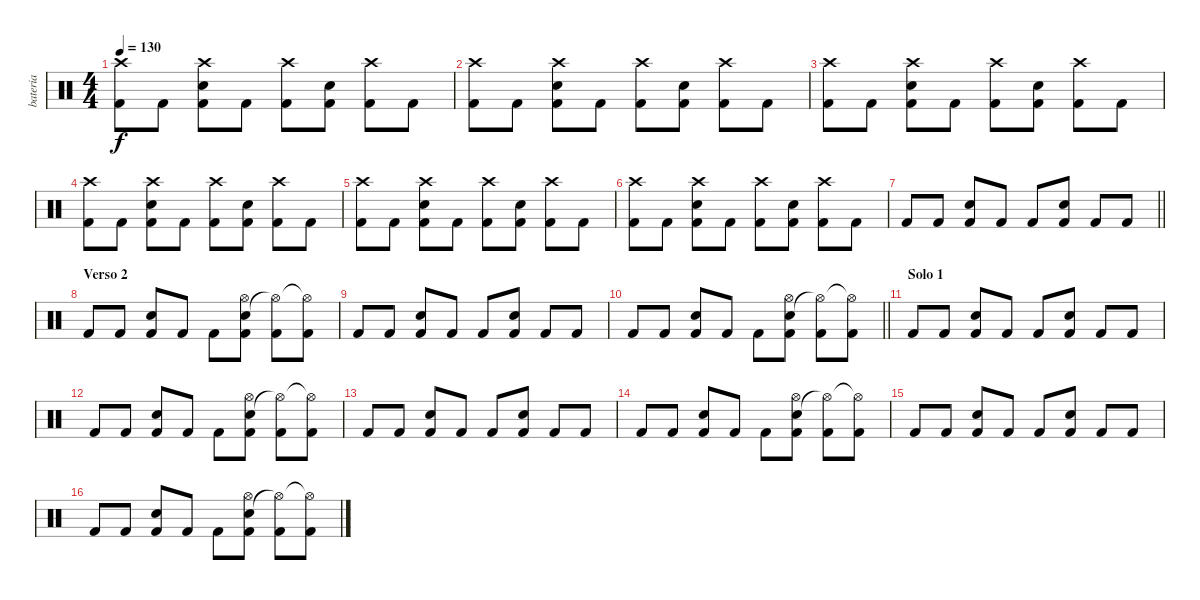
\track ("bateria" "bateria") {instrument percussion}
\staff {score}
\articulation defaults
\ts (4 4)
\tempo 130
\clef neutral
\ks c
("Crash high (hit)" "Kick (hit) 2").8{dy f} "Kick (hit) 2".8 ("Crash high (hit)" "Kick (hit) 2" "Electric Snare (hit)").8 "Kick (hit) 2".8 ("Crash high (hit)" "Kick (hit) 2").8 ("Kick (hit) 2" "Electric Snare (hit)").8 ("Crash high (hit)" "Kick (hit) 2").8 "Kick (hit) 2".8 |
("Crash high (hit)" "Kick (hit) 2").8 "Kick (hit) 2".8 ("Crash high (hit)" "Kick (hit) 2" "Electric Snare (hit)").8 "Kick (hit) 2".8 ("Crash high (hit)" "Kick (hit) 2").8 ("Kick (hit) 2" "Electric Snare (hit)").8 ("Crash high (hit)" "Kick (hit) 2").8 "Kick (hit) 2".8 |
("Crash high (hit)" "Kick (hit) 2").8 "Kick (hit) 2".8 ("Crash high (hit)" "Kick (hit) 2" "Electric Snare (hit)").8 "Kick (hit) 2".8 ("Crash high (hit)" "Kick (hit) 2").8 ("Kick (hit) 2" "Electric Snare (hit)").8 ("Crash high (hit)" "Kick (hit) 2").8 "Kick (hit) 2".8 |
("Crash high (hit)" "Kick (hit) 2").8 "Kick (hit) 2".8 ("Crash high (hit)" "Kick (hit) 2" "Electric Snare (hit)").8 "Kick (hit) 2".8 ("Crash high (hit)" "Kick (hit) 2").8 ("Kick (hit) 2" "Electric Snare (hit)").8 ("Crash high (hit)" "Kick (hit) 2").8 "Kick (hit) 2".8 |
("Crash high (hit)" "Kick (hit) 2").8 "Kick (hit) 2".8 ("Crash high (hit)" "Kick (hit) 2" "Electric Snare (hit)").8 "Kick (hit) 2".8 ("Crash high (hit)" "Kick (hit) 2").8 ("Kick (hit) 2" "Electric Snare (hit)").8 ("Crash high (hit)" "Kick (hit) 2").8 "Kick (hit) 2".8 |
("Crash high (hit)" "Kick (hit) 2").8 "Kick (hit) 2".8 ("Crash high (hit)" "Kick (hit) 2" "Electric Snare (hit)").8 "Kick (hit) 2".8 ("Crash high (hit)" "Kick (hit) 2").8 ("Kick (hit) 2" "Electric Snare (hit)").8 ("Crash high (hit)" "Kick (hit) 2").8 "Kick (hit) 2".8 |
\barLineRight lightlight "Kick (hit) 2".8 "Kick (hit) 2".8
("Kick (hit) 2" "Electric Snare (hit)").8 "Kick (hit) 2".8 "Kick (hit) 2".8 ("Kick (hit) 2" "Electric Snare (hit)").8 "Kick (hit) 2".8 "Kick (hit) 2".8 |
\section ("" "Verso 2")
"Kick (hit) 2".8 "Kick (hit) 2".8 ("Kick (hit) 2" "Electric Snare (hit)").8 "Kick (hit) 2".8 "Kick (hit) 2".8 ("Kick (hit) 2" "Electric Snare (hit)" "Hi-Hat (open)").8 ("Kick (hit) 2" "Hi-Hat (open)"{t}).8 ("Kick (hit) 2" "Hi-Hat (open)"{t}).8 |
"Kick (hit) 2".8 "Kick (hit) 2".8 ("Kick (hit) 2" "Electric Snare (hit)").8 "Kick (hit) 2".8 "Kick (hit) 2".8 ("Kick (hit) 2" "Electric Snare (hit)").8 "Kick (hit) 2".8 "Kick (hit) 2".8 |
\barLineRight lightlight "Kick (hit) 2".8 "Kick (hit) 2".8
("Kick (hit) 2" "Electric Snare (hit)").8 "Kick (hit) 2".8 "Kick (hit) 2".8 ("Kick (hit) 2" "Electric Snare (hit)" "Hi-Hat (open)").8 ("Kick (hit) 2" "Hi-Hat (open)"{t}).8 ("Kick (hit) 2" "Hi-Hat (open)"{t}).8 |
\section ("" "Solo 1")
"Kick (hit) 2".8 "Kick (hit) 2".8 ("Kick (hit) 2" "Electric Snare (hit)").8 "Kick (hit) 2".8 "Kick (hit) 2".8 ("Kick (hit) 2" "Electric Snare (hit)").8 "Kick (hit) 2".8 "Kick (hit) 2".8 |
"Kick (hit) 2".8 "Kick (hit) 2".8 ("Kick (hit) 2" "Electric Snare (hit)").8 "Kick (hit) 2".8 "Kick (hit) 2".8 ("Kick (hit) 2" "Electric Snare (hit)" "Hi-Hat (open)").8 ("Kick (hit) 2" "Hi-Hat (open)"{t}).8 ("Kick (hit) 2" "Hi-Hat (open)"{t}).8 |
"Kick (hit) 2".8 "Kick (hit) 2".8 ("Kick (hit) 2" "Electric Snare (hit)").8 "Kick (hit) 2".8 "Kick (hit) 2".8 ("Kick (hit) 2" "Electric Snare (hit)").8 "Kick (hit) 2".8 "Kick (hit) 2".8 |
"Kick (hit) 2".8 "Kick (hit) 2".8 ("Kick (hit) 2" "Electric Snare (hit)").8 "Kick (hit) 2".8 "Kick (hit) 2".8 ("Kick (hit) 2" "Electric Snare (hit)" "Hi-Hat (open)").8 ("Kick (hit) 2" "Hi-Hat (open)"{t}).8 ("Kick (hit) 2" "Hi-Hat (open)"{t}).8 |
"Kick (hit) 2".8 "Kick (hit) 2".8 ("Kick (hit) 2" "Electric Snare (hit)").8 "Kick (hit) 2".8 "Kick (hit) 2".8 ("Kick (hit) 2" "Electric Snare (hit)").8 "Kick (hit) 2".8 "Kick (hit) 2".8 |
"Kick (hit) 2".8 "Kick (hit) 2".8 ("Kick (hit) 2" "Electric Snare (hit)").8 "Kick (hit) 2".8 "Kick (hit) 2".8 ("Kick (hit) 2" "Electric Snare (hit)" "Hi-Hat (open)").8 ("Kick (hit) 2" "Hi-Hat (open)"{t}).8 ("Kick (hit) 2" "Hi-Hat (open)"{t}).8
